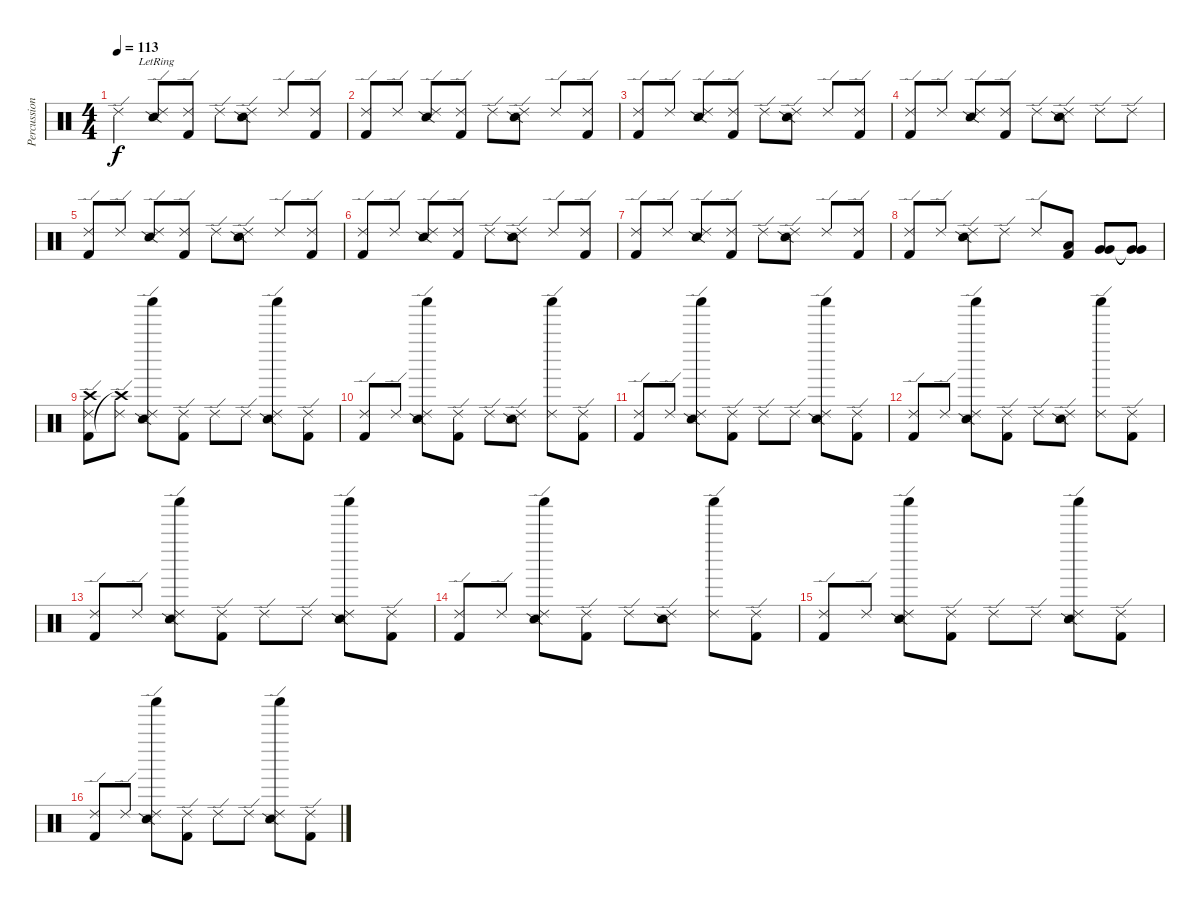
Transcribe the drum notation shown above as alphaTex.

\track ("Percussion" "Percussion") {instrument percussion}
\staff {score}
\articulation defaults
\ts (4 4)
\tempo 113
\clef neutral
\ks c "Ride (edge) 2".4{dy f}
("Ride (edge) 2"{lr} "Snare (side stick) 2").8 ("Ride (edge) 2" "Kick (hit) 2").8 "Ride (edge) 2".8 ("Ride (edge) 2" "Snare (side stick) 2").8 "Ride (edge) 2".8 ("Ride (edge) 2" "Kick (hit) 2").8 |
("Ride (edge) 2" "Kick (hit) 2").8 "Ride (edge) 2".8 ("Ride (edge) 2" "Snare (side stick) 2").8 ("Ride (edge) 2" "Kick (hit) 2").8 "Ride (edge) 2".8 ("Ride (edge) 2" "Snare (side stick) 2").8 "Ride (edge) 2".8 ("Ride (edge) 2" "Kick (hit) 2").8 |
("Ride (edge) 2" "Kick (hit) 2").8 "Ride (edge) 2".8 ("Ride (edge) 2" "Snare (side stick) 2").8 ("Ride (edge) 2" "Kick (hit) 2").8 "Ride (edge) 2".8 ("Ride (edge) 2" "Snare (side stick) 2").8 "Ride (edge) 2".8 ("Ride (edge) 2" "Kick (hit) 2").8 |
("Ride (edge) 2" "Kick (hit) 2").8 "Ride (edge) 2".8 ("Ride (edge) 2" "Snare (side stick) 2").8 ("Ride (edge) 2" "Kick (hit) 2").8 "Ride (edge) 2".8 ("Ride (edge) 2" "Snare (side stick) 2").8 "Ride (edge) 2".8 "Ride (edge) 2".8 |
("Ride (edge) 2" "Kick (hit) 2").8 "Ride (edge) 2".8 ("Ride (edge) 2" "Snare (side stick) 2").8 ("Ride (edge) 2" "Kick (hit) 2").8 "Ride (edge) 2".8 ("Ride (edge) 2" "Snare (side stick) 2").8 "Ride (edge) 2".8 ("Ride (edge) 2" "Kick (hit) 2").8 |
("Ride (edge) 2" "Kick (hit) 2").8 "Ride (edge) 2".8 ("Ride (edge) 2" "Snare (side stick) 2").8 ("Ride (edge) 2" "Kick (hit) 2").8 "Ride (edge) 2".8 ("Ride (edge) 2" "Snare (side stick) 2").8 "Ride (edge) 2".8 ("Ride (edge) 2" "Kick (hit) 2").8 |
("Ride (edge) 2" "Kick (hit) 2").8 "Ride (edge) 2".8 ("Ride (edge) 2" "Snare (side stick) 2").8 ("Ride (edge) 2" "Kick (hit) 2").8 "Ride (edge) 2".8 ("Ride (edge) 2" "Snare (side stick) 2").8 "Ride (edge) 2".8 ("Ride (edge) 2" "Kick (hit) 2").8 |
("Ride (edge) 2" "Kick (hit) 2").8 "Ride (edge) 2".8 ("Ride (edge) 2" "Snare (side stick) 2").8 "Ride (edge) 2".8 "Ride (edge) 2".8 ("Low Tom (hit)" "Kick (hit) 2").8 ("Very Low Tom (hit)" "Very Low Tom (hit)").8 ("Very Low Tom (hit)"{t} "Very Low Tom (hit)"{t}).8 |
("Ride (edge) 2" "Kick (hit) 2" "Crash high (hit)").8 ("Ride (edge) 2" "Crash high (hit)"{t}).8 ("Shaker (hit)" "Ride (edge) 2" "Snare (side stick) 2").8 ("Ride (edge) 2" "Kick (hit) 2").8 "Ride (edge) 2".8 "Ride (edge) 2".8 ("Shaker (hit)" "Ride (edge) 2" "Snare (side stick) 2").8 ("Ride (edge) 2" "Kick (hit) 2").8 |
("Ride (edge) 2" "Kick (hit) 2").8 "Ride (edge) 2".8 ("Shaker (hit)" "Ride (edge) 2" "Snare (side stick) 2").8 ("Ride (edge) 2" "Kick (hit) 2").8 "Ride (edge) 2".8 ("Ride (edge) 2" "Snare (side stick) 2").8 ("Shaker (hit)" "Ride (edge) 2").8 ("Ride (edge) 2" "Kick (hit) 2").8 |
("Ride (edge) 2" "Kick (hit) 2").8 "Ride (edge) 2".8 ("Shaker (hit)" "Ride (edge) 2" "Snare (side stick) 2").8 ("Ride (edge) 2" "Kick (hit) 2").8 "Ride (edge) 2".8 "Ride (edge) 2".8 ("Shaker (hit)" "Ride (edge) 2" "Snare (side stick) 2").8 ("Ride (edge) 2" "Kick (hit) 2").8 |
("Ride (edge) 2" "Kick (hit) 2").8 "Ride (edge) 2".8 ("Shaker (hit)" "Ride (edge) 2" "Snare (side stick) 2").8 ("Ride (edge) 2" "Kick (hit) 2").8 "Ride (edge) 2".8 ("Ride (edge) 2" "Snare (side stick) 2").8 ("Shaker (hit)" "Ride (edge) 2").8 ("Ride (edge) 2" "Kick (hit) 2").8 |
("Ride (edge) 2" "Kick (hit) 2").8 "Ride (edge) 2".8 ("Shaker (hit)" "Ride (edge) 2" "Snare (side stick) 2").8 ("Ride (edge) 2" "Kick (hit) 2").8 "Ride (edge) 2".8 "Ride (edge) 2".8 ("Shaker (hit)" "Ride (edge) 2" "Snare (side stick) 2").8 ("Ride (edge) 2" "Kick (hit) 2").8 |
("Ride (edge) 2" "Kick (hit) 2").8 "Ride (edge) 2".8 ("Shaker (hit)" "Ride (edge) 2" "Snare (side stick) 2").8 ("Ride (edge) 2" "Kick (hit) 2").8 "Ride (edge) 2".8 ("Ride (edge) 2" "Snare (side stick) 2").8 ("Shaker (hit)" "Ride (edge) 2").8 ("Ride (edge) 2" "Kick (hit) 2").8 |
("Ride (edge) 2" "Kick (hit) 2").8 "Ride (edge) 2".8 ("Shaker (hit)" "Ride (edge) 2" "Snare (side stick) 2").8 ("Ride (edge) 2" "Kick (hit) 2").8 "Ride (edge) 2".8 "Ride (edge) 2".8 ("Shaker (hit)" "Ride (edge) 2" "Snare (side stick) 2").8 ("Ride (edge) 2" "Kick (hit) 2").8 |
("Ride (edge) 2" "Kick (hit) 2").8 "Ride (edge) 2".8 ("Shaker (hit)" "Ride (edge) 2" "Snare (side stick) 2").8 ("Ride (edge) 2" "Kick (hit) 2").8 "Ride (edge) 2".8 "Ride (edge) 2".8 ("Shaker (hit)" "Ride (edge) 2" "Snare (side stick) 2").8 ("Ride (edge) 2" "Kick (hit) 2").8
